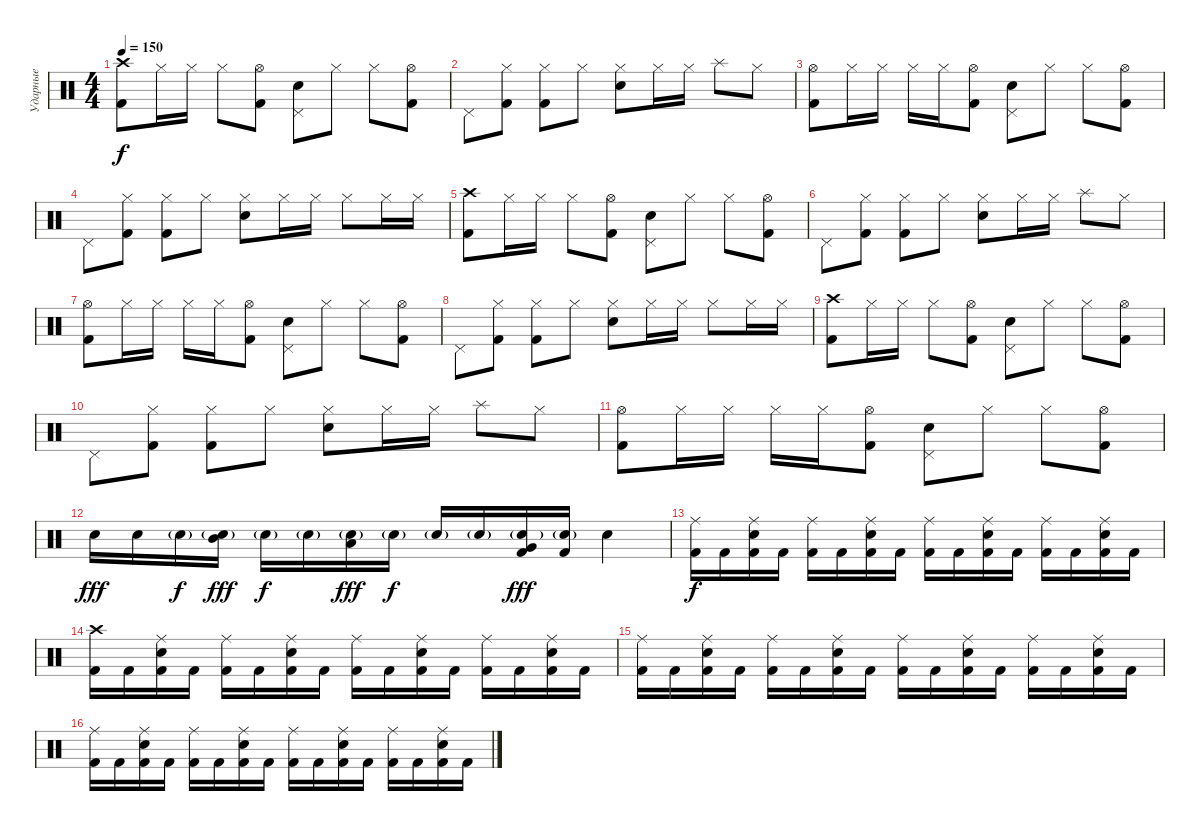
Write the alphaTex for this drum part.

\track ("Ударные" "Ударные") {instrument percussion}
\staff {score}
\articulation defaults
\ts (4 4)
\tempo 150
\clef neutral
\ks c
("Crash high (hit)" "Kick (hit) 2").8{dy f} "Hi-Hat (closed)".16 "Hi-Hat (closed)".16 "Hi-Hat (closed)".8 ("Hi-Hat (open)" "Kick (hit) 2").8 ("Pedal Hi-Hat (hit)" "Electric Snare (hit)").8 "Hi-Hat (closed)".8 "Hi-Hat (closed)".8 ("Hi-Hat (open)" "Kick (hit) 2").8 |
"Pedal Hi-Hat (hit)".8 ("Hi-Hat (closed)" "Kick (hit) 2").8 ("Hi-Hat (closed)" "Kick (hit) 2").8 "Hi-Hat (closed)".8 ("Hi-Hat (closed)" "Electric Snare (hit)").8 "Hi-Hat (closed)".16 "Hi-Hat (closed)".16 "Splash (hit)".8 "Hi-Hat (closed)".8 |
("Hi-Hat (open)" "Kick (hit) 2").8 "Hi-Hat (closed)".16 "Hi-Hat (closed)".16 "Hi-Hat (closed)".16 "Hi-Hat (closed)".16 ("Hi-Hat (open)" "Kick (hit) 2").8 ("Pedal Hi-Hat (hit)" "Electric Snare (hit)").8 "Hi-Hat (closed)".8 "Hi-Hat (closed)".8 ("Hi-Hat (open)" "Kick (hit) 2").8 |
"Pedal Hi-Hat (hit)".8 ("Hi-Hat (closed)" "Kick (hit) 2").8 ("Hi-Hat (closed)" "Kick (hit) 2").8 "Hi-Hat (closed)".8 ("Hi-Hat (closed)" "Electric Snare (hit)").8 "Hi-Hat (closed)".16 "Hi-Hat (closed)".16 "Hi-Hat (closed)".8 "Hi-Hat (closed)".16 "Hi-Hat (closed)".16 |
("Crash high (hit)" "Kick (hit) 2").8 "Hi-Hat (closed)".16 "Hi-Hat (closed)".16 "Hi-Hat (closed)".8 ("Hi-Hat (open)" "Kick (hit) 2").8 ("Pedal Hi-Hat (hit)" "Electric Snare (hit)").8 "Hi-Hat (closed)".8 "Hi-Hat (closed)".8 ("Hi-Hat (open)" "Kick (hit) 2").8 |
"Pedal Hi-Hat (hit)".8 ("Hi-Hat (closed)" "Kick (hit) 2").8 ("Hi-Hat (closed)" "Kick (hit) 2").8 "Hi-Hat (closed)".8 ("Hi-Hat (closed)" "Electric Snare (hit)").8 "Hi-Hat (closed)".16 "Hi-Hat (closed)".16 "Splash (hit)".8 "Hi-Hat (closed)".8 |
("Hi-Hat (open)" "Kick (hit) 2").8 "Hi-Hat (closed)".16 "Hi-Hat (closed)".16 "Hi-Hat (closed)".16 "Hi-Hat (closed)".16 ("Hi-Hat (open)" "Kick (hit) 2").8 ("Pedal Hi-Hat (hit)" "Electric Snare (hit)").8 "Hi-Hat (closed)".8 "Hi-Hat (closed)".8 ("Hi-Hat (open)" "Kick (hit) 2").8 |
"Pedal Hi-Hat (hit)".8 ("Hi-Hat (closed)" "Kick (hit) 2").8 ("Hi-Hat (closed)" "Kick (hit) 2").8 "Hi-Hat (closed)".8 ("Hi-Hat (closed)" "Electric Snare (hit)").8 "Hi-Hat (closed)".16 "Hi-Hat (closed)".16 "Hi-Hat (closed)".8 "Hi-Hat (closed)".16 "Hi-Hat (closed)".16 |
("Crash high (hit)" "Kick (hit) 2").8 "Hi-Hat (closed)".16 "Hi-Hat (closed)".16 "Hi-Hat (closed)".8 ("Hi-Hat (open)" "Kick (hit) 2").8 ("Pedal Hi-Hat (hit)" "Electric Snare (hit)").8 "Hi-Hat (closed)".8 "Hi-Hat (closed)".8 ("Hi-Hat (open)" "Kick (hit) 2").8 |
"Pedal Hi-Hat (hit)".8 ("Hi-Hat (closed)" "Kick (hit) 2").8 ("Hi-Hat (closed)" "Kick (hit) 2").8 "Hi-Hat (closed)".8 ("Hi-Hat (closed)" "Electric Snare (hit)").8 "Hi-Hat (closed)".16 "Hi-Hat (closed)".16 "Splash (hit)".8 "Hi-Hat (closed)".8 |
("Hi-Hat (open)" "Kick (hit) 2").8 "Hi-Hat (closed)".16 "Hi-Hat (closed)".16 "Hi-Hat (closed)".16 "Hi-Hat (closed)".16 ("Hi-Hat (open)" "Kick (hit) 2").8 ("Pedal Hi-Hat (hit)" "Electric Snare (hit)").8 "Hi-Hat (closed)".8 "Hi-Hat (closed)".8 ("Hi-Hat (open)" "Kick (hit) 2").8 |
"Electric Snare (hit)".16{dy fff} "Electric Snare (hit)".16 "Electric Snare (hit)"{g}.16{dy f} ("Mid Tom (hit)" "Electric Snare (hit)"{g}).16{dy fff} "Electric Snare (hit)"{g}.16{dy f} "Electric Snare (hit)"{g}.16 ("Low Tom (hit)" "Electric Snare (hit)"{g}).16{dy fff} "Electric Snare (hit)"{g}.16{dy f} "Electric Snare (hit)"{g}.16 "Electric Snare (hit)"{g}.16 ("Electric Snare (hit)"{g} "Very Low Tom (hit)" "Kick (hit) 2").16{dy fff} ("Electric Snare (hit)"{g} "Kick (hit) 2").16 "Electric Snare (hit)".4 |
("Ride (middle)" "Kick (hit) 2").16{dy f} "Kick (hit) 2".16 ("Ride (middle)" "Electric Snare (hit)" "Kick (hit) 2").16 "Kick (hit) 2".16 ("Ride (middle)" "Kick (hit) 2").16 "Kick (hit) 2".16 ("Ride (middle)" "Electric Snare (hit)" "Kick (hit) 2").16 "Kick (hit) 2".16 ("Ride (middle)" "Kick (hit) 2").16 "Kick (hit) 2".16 ("Ride (middle)" "Electric Snare (hit)" "Kick (hit) 2").16 "Kick (hit) 2".16 ("Ride (middle)" "Kick (hit) 2").16 "Kick (hit) 2".16 ("Ride (middle)" "Electric Snare (hit)" "Kick (hit) 2").16 "Kick (hit) 2".16 |
("Crash high (hit)" "Kick (hit) 2").16 "Kick (hit) 2".16 ("Ride (middle)" "Electric Snare (hit)" "Kick (hit) 2").16 "Kick (hit) 2".16 ("Ride (middle)" "Kick (hit) 2").16 "Kick (hit) 2".16 ("Ride (middle)" "Electric Snare (hit)" "Kick (hit) 2").16 "Kick (hit) 2".16 ("Ride (middle)" "Kick (hit) 2").16 "Kick (hit) 2".16 ("Ride (middle)" "Electric Snare (hit)" "Kick (hit) 2").16 "Kick (hit) 2".16 ("Ride (middle)" "Kick (hit) 2").16 "Kick (hit) 2".16 ("Ride (middle)" "Electric Snare (hit)" "Kick (hit) 2").16 "Kick (hit) 2".16 |
("Ride (middle)" "Kick (hit) 2").16 "Kick (hit) 2".16 ("Ride (middle)" "Electric Snare (hit)" "Kick (hit) 2").16 "Kick (hit) 2".16 ("Ride (middle)" "Kick (hit) 2").16 "Kick (hit) 2".16 ("Ride (middle)" "Electric Snare (hit)" "Kick (hit) 2").16 "Kick (hit) 2".16 ("Ride (middle)" "Kick (hit) 2").16 "Kick (hit) 2".16 ("Ride (middle)" "Electric Snare (hit)" "Kick (hit) 2").16 "Kick (hit) 2".16 ("Ride (middle)" "Kick (hit) 2").16 "Kick (hit) 2".16 ("Ride (middle)" "Electric Snare (hit)" "Kick (hit) 2").16 "Kick (hit) 2".16 |
("Ride (middle)" "Kick (hit) 2").16 "Kick (hit) 2".16 ("Ride (middle)" "Electric Snare (hit)" "Kick (hit) 2").16 "Kick (hit) 2".16 ("Ride (middle)" "Kick (hit) 2").16 "Kick (hit) 2".16 ("Ride (middle)" "Electric Snare (hit)" "Kick (hit) 2").16 "Kick (hit) 2".16 ("Ride (middle)" "Kick (hit) 2").16 "Kick (hit) 2".16 ("Ride (middle)" "Electric Snare (hit)" "Kick (hit) 2").16 "Kick (hit) 2".16 ("Ride (middle)" "Kick (hit) 2").16 "Kick (hit) 2".16 ("Ride (middle)" "Electric Snare (hit)" "Kick (hit) 2").16 "Kick (hit) 2".16
